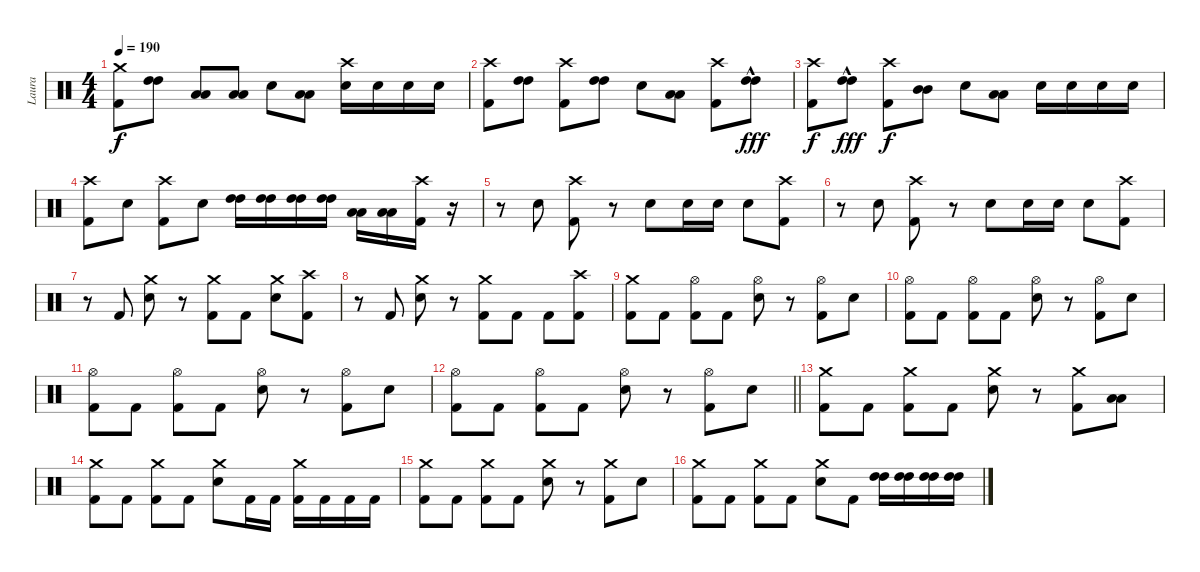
\track ("Laura" "Laura") {instrument percussion}
\staff {score}
\articulation defaults
\ts (4 4)
\tempo 190
\clef neutral
\ks c
("Crash medium (hit)" "Kick (hit) 2").8{dy f} ("High Tom (hit)" "High Tom (hit)").8 ("Low Floor Tom (hit)" "Low Floor Tom (hit)").8 ("Low Tom (hit)" "Low Tom (hit)").8 "Electric Snare (hit)".8 ("Low Tom (hit)" "Low Tom (hit)").8 ("Crash high (hit)" "Electric Snare (hit)").16 "Electric Snare (hit)".16 "Electric Snare (hit)".16 "Electric Snare (hit)".16 |
("Crash high (hit)" "Kick (hit) 2").8 ("High Tom (hit)" "High Tom (hit)").8 ("Crash high (hit)" "Kick (hit) 2").8 ("High Tom (hit)" "High Tom (hit)").8 "Electric Snare (hit)".8 ("Low Floor Tom (hit)" "Low Floor Tom (hit)").8 ("Crash high (hit)" "Kick (hit) 2").8 ("High Tom (hit)"{hac} "High Tom (hit)"{hac}).8{dy fff} |
("Crash high (hit)" "Kick (hit) 2").8{dy f} ("High Tom (hit)"{hac} "High Tom (hit)"{hac}).8{dy fff} ("Crash high (hit)" "Kick (hit) 2").8{dy f} ("Mid Tom (hit)" "Mid Tom (hit)").8 "Electric Snare (hit)".8 ("Low Tom (hit)" "Low Tom (hit)").8 "Electric Snare (hit)".16 "Electric Snare (hit)".16 "Electric Snare (hit)".16 "Electric Snare (hit)".16 |
("Crash high (hit)" "Kick (hit) 2").8 "Electric Snare (hit)".8 ("Crash high (hit)" "Kick (hit) 2").8 "Electric Snare (hit)".8 ("High Tom (hit)" "High Tom (hit)").16 ("High Tom (hit)" "High Tom (hit)").16 ("High Tom (hit)" "High Tom (hit)").16 ("High Tom (hit)" "High Tom (hit)").16 ("Low Tom (hit)" "Low Tom (hit)").16 ("Low Tom (hit)" "Low Tom (hit)").16 ("Crash high (hit)" "Kick (hit) 2").16 r.16 |
r.8 "Electric Snare (hit)".8 ("Crash high (hit)" "Kick (hit) 2").8 r.8 "Electric Snare (hit)".8 "Electric Snare (hit)".16 "Electric Snare (hit)".16 "Electric Snare (hit)".8 ("Crash high (hit)" "Kick (hit) 2").8 |
r.8 "Electric Snare (hit)".8 ("Crash high (hit)" "Kick (hit) 2").8 r.8 "Electric Snare (hit)".8 "Electric Snare (hit)".16 "Electric Snare (hit)".16 "Electric Snare (hit)".8 ("Crash high (hit)" "Kick (hit) 2").8 |
r.8 "Kick (hit) 2".8 ("Crash medium (hit)" "Electric Snare (hit)").8 r.8 ("Crash medium (hit)" "Kick (hit) 2").8 "Kick (hit) 2".8 ("Crash medium (hit)" "Electric Snare (hit)").8 ("Crash high (hit)" "Kick (hit) 2").8 |
r.8 "Kick (hit) 2".8 ("Crash medium (hit)" "Electric Snare (hit)").8 r.8 ("Crash medium (hit)" "Kick (hit) 2").8 "Kick (hit) 2".8 "Kick (hit) 2".8 ("Crash high (hit)" "Kick (hit) 2").8 |
("Crash medium (hit)" "Kick (hit) 2").8 "Kick (hit) 2".8 ("Hi-Hat (open)" "Kick (hit) 2").8 "Kick (hit) 2".8 ("Hi-Hat (open)" "Electric Snare (hit)").8 r.8 ("Hi-Hat (open)" "Kick (hit) 2").8 "Electric Snare (hit)".8 |
("Hi-Hat (open)" "Kick (hit) 2").8 "Kick (hit) 2".8 ("Hi-Hat (open)" "Kick (hit) 2").8 "Kick (hit) 2".8 ("Hi-Hat (open)" "Electric Snare (hit)").8 r.8 ("Hi-Hat (open)" "Kick (hit) 2").8 "Electric Snare (hit)".8 |
("Hi-Hat (open)" "Kick (hit) 2").8 "Kick (hit) 2".8 ("Hi-Hat (open)" "Kick (hit) 2").8 "Kick (hit) 2".8 ("Hi-Hat (open)" "Electric Snare (hit)").8 r.8 ("Hi-Hat (open)" "Kick (hit) 2").8 "Electric Snare (hit)".8 |
\barLineRight lightlight
("Hi-Hat (open)" "Kick (hit) 2").8 "Kick (hit) 2".8 ("Hi-Hat (open)" "Kick (hit) 2").8 "Kick (hit) 2".8 ("Hi-Hat (open)" "Electric Snare (hit)").8 r.8 ("Hi-Hat (open)" "Kick (hit) 2").8 "Electric Snare (hit)".8 |
("Crash medium (hit)" "Kick (hit) 2").8 "Kick (hit) 2".8 ("Crash medium (hit)" "Kick (hit) 2").8 "Kick (hit) 2".8 ("Crash medium (hit)" "Electric Snare (hit)").8 r.8 ("Crash medium (hit)" "Kick (hit) 2").8 ("Low Tom (hit)" "Low Tom (hit)").8 |
("Crash medium (hit)" "Kick (hit) 2").8 "Kick (hit) 2".8 ("Crash medium (hit)" "Kick (hit) 2").8 "Kick (hit) 2".8 ("Crash medium (hit)" "Electric Snare (hit)").8 "Kick (hit) 2".16 "Kick (hit) 2".16 ("Crash medium (hit)" "Kick (hit) 2").16 "Kick (hit) 2".16 "Kick (hit) 2".16 "Kick (hit) 2".16 |
("Crash medium (hit)" "Kick (hit) 2").8 "Kick (hit) 2".8 ("Crash medium (hit)" "Kick (hit) 2").8 "Kick (hit) 2".8 ("Crash medium (hit)" "Electric Snare (hit)").8 r.8 ("Crash medium (hit)" "Kick (hit) 2").8 "Electric Snare (hit)".8 |
("Crash medium (hit)" "Kick (hit) 2").8 "Kick (hit) 2".8 ("Crash medium (hit)" "Kick (hit) 2").8 "Kick (hit) 2".8 ("Crash medium (hit)" "Electric Snare (hit)").8 "Kick (hit) 2".8 ("High Tom (hit)" "High Tom (hit)").16 ("High Tom (hit)" "High Tom (hit)").16 ("High Tom (hit)" "High Tom (hit)").16 ("High Tom (hit)" "High Tom (hit)").16
